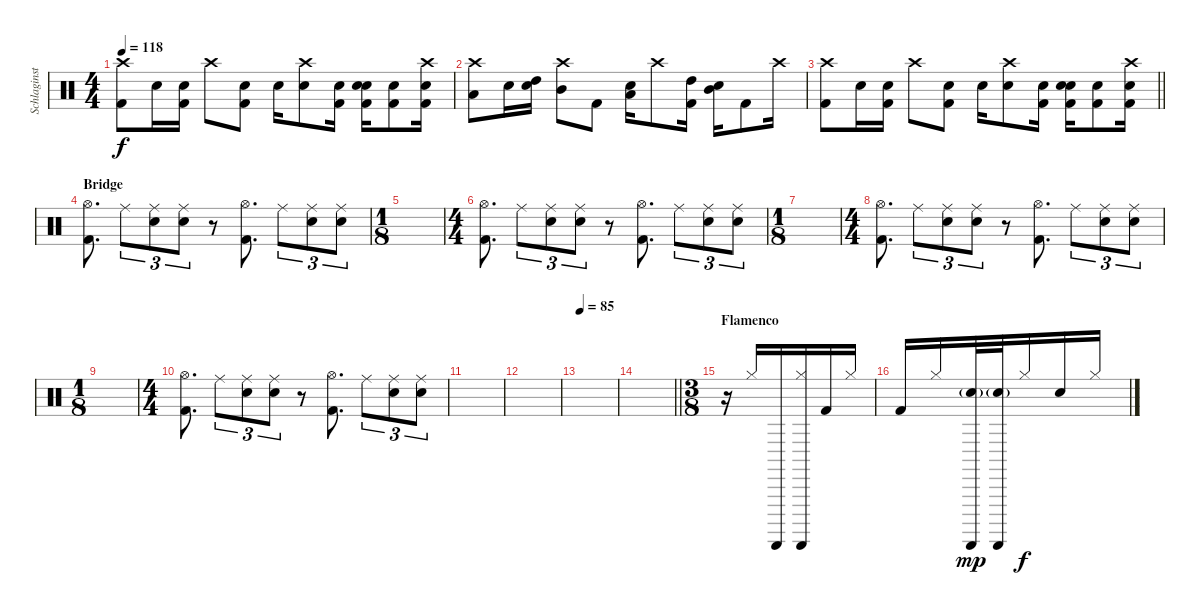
\track ("Schlaginstrumente - Auswahl" "Schlaginst") {instrument percussion}
\staff {score}
\articulation defaults
\ts (4 4)
\tempo 118
\clef neutral
\ks c
("Crash high (hit)" "Kick (hit) 2").8{dy f} "Electric Snare (hit)".16 ("Electric Snare (hit)" "Kick (hit) 2").16 "Crash high (hit)".8 ("Kick (hit) 2" "Electric Snare (hit)").8 "Electric Snare (hit)".16 ("Crash high (hit)" "Electric Snare (hit)").8 ("Kick (hit) 2" "Electric Snare (hit)").16 ("Snare (hit) 2" "Kick (hit) 2" "Electric Snare (hit)").16 ("Kick (hit) 2" "Electric Snare (hit)").8 ("Crash high (hit)" "Kick (hit) 2" "Electric Snare (hit)").16 |
("Crash high (hit)" "Low Floor Tom (hit)").8 "Electric Snare (hit)".16 ("Electric Snare (hit)" "High Tom (hit)").16 ("Crash high (hit)" "Mid Tom (hit)").8 "Kick (hit) 2".8 ("Electric Snare (hit)" "Low Floor Tom (hit)").16 "Crash high (hit)".8 ("Kick (hit) 2" "High Tom (hit)").16 ("Snare (hit) 2" "Mid Tom (hit)").16 "Kick (hit) 2".8 "Crash high (hit)".16 |
\barLineRight lightlight
("Crash high (hit)" "Kick (hit) 2").8 "Electric Snare (hit)".16 ("Electric Snare (hit)" "Kick (hit) 2").16 "Crash high (hit)".8 ("Kick (hit) 2" "Electric Snare (hit)").8 "Electric Snare (hit)".16 ("Crash high (hit)" "Electric Snare (hit)").8 ("Kick (hit) 2" "Electric Snare (hit)").16 ("Snare (hit) 2" "Kick (hit) 2" "Electric Snare (hit)").16 ("Kick (hit) 2" "Electric Snare (hit)").8 ("Crash high (hit)" "Kick (hit) 2" "Electric Snare (hit)").16 |
\section ("" "Bridge")
("Hi-Hat (open)" "Kick (hit) 2").8{d} "Ride (middle)".8{tu (3 2)} ("Ride (middle)" "Electric Snare (hit)").8{tu (3 2)} ("Ride (middle)" "Electric Snare (hit)").8{tu (3 2)} r.8 ("Hi-Hat (open)" "Kick (hit) 2").8{d} "Ride (middle)".8{tu (3 2)} ("Ride (middle)" "Electric Snare (hit)").8{tu (3 2)} ("Ride (middle)" "Electric Snare (hit)").8{tu (3 2)} |
\ts (1 8)
|
\ts (4 4)
("Hi-Hat (open)" "Kick (hit) 2").8{d} "Ride (middle)".8{tu (3 2)} ("Ride (middle)" "Electric Snare (hit)").8{tu (3 2)} ("Ride (middle)" "Electric Snare (hit)").8{tu (3 2)} r.8 ("Hi-Hat (open)" "Kick (hit) 2").8{d} "Ride (middle)".8{tu (3 2)} ("Ride (middle)" "Electric Snare (hit)").8{tu (3 2)} ("Ride (middle)" "Electric Snare (hit)").8{tu (3 2)} |
\ts (1 8)
|
\ts (4 4)
("Hi-Hat (open)" "Kick (hit) 2").8{d} "Ride (middle)".8{tu (3 2)} ("Ride (middle)" "Electric Snare (hit)").8{tu (3 2)} ("Ride (middle)" "Electric Snare (hit)").8{tu (3 2)} r.8 ("Hi-Hat (open)" "Kick (hit) 2").8{d} "Ride (middle)".8{tu (3 2)} ("Ride (middle)" "Electric Snare (hit)").8{tu (3 2)} ("Ride (middle)" "Electric Snare (hit)").8{tu (3 2)} |
\ts (1 8)
|
\ts (4 4)
("Hi-Hat (open)" "Kick (hit) 2").8{d} "Ride (middle)".8{tu (3 2)} ("Ride (middle)" "Electric Snare (hit)").8{tu (3 2)} ("Ride (middle)" "Electric Snare (hit)").8{tu (3 2)} r.8 ("Hi-Hat (open)" "Kick (hit) 2").8{d} "Ride (middle)".8{tu (3 2)} ("Ride (middle)" "Electric Snare (hit)").8{tu (3 2)} ("Ride (middle)" "Electric Snare (hit)").8{tu (3 2)} |
|
|
\tempo 85
|
\barLineRight lightlight
|
\ts (3 8)
\section ("" "Flamenco")
r.16 "Hi-Hat (closed)".16 "Guiro (scrap-return)".16 ("Hi-Hat (closed)" "Guiro (scrap-return)").16 "Kick (hit) 2".16 "Hi-Hat (closed)".16 |
"Kick (hit) 2".16 "Hi-Hat (closed)".16 ("Electric Snare (hit)"{g} "Guiro (scrap-return)").32{dy mp} ("Electric Snare (hit)"{g} "Guiro (scrap-return)").32 "Hi-Hat (closed)".16{dy f} "Electric Snare (hit)".16 "Hi-Hat (closed)".16
